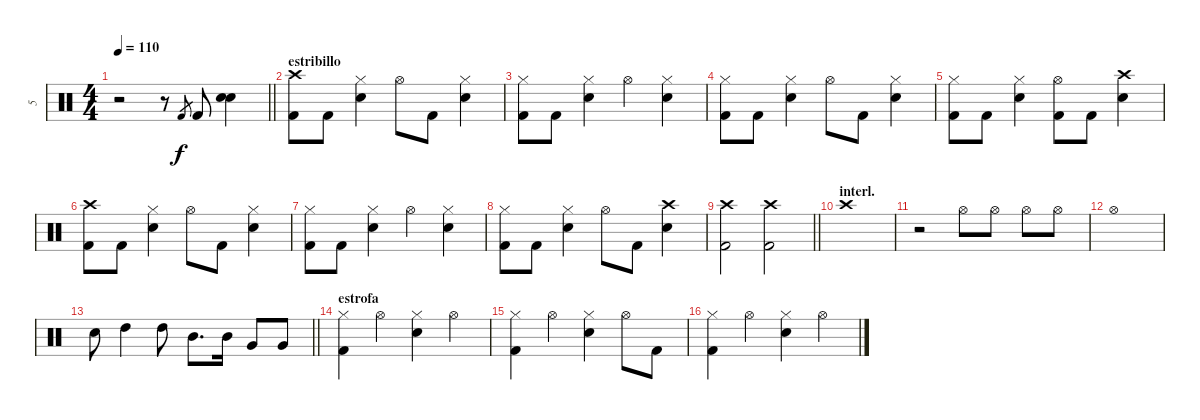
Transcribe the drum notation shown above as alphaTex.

\track ("5" "5") {instrument percussion}
\staff {score}
\articulation defaults
\ts (4 4)
\tempo 110
\clef neutral
\barLineRight lightlight
\ks c
r.2{dy f} r.8 "Kick (hit) 2".8{gr} "Kick (hit) 2".8 ("Electric Snare (hit)" "Electric Snare (hit)").4 |
\section ("" "estribillo")
("Crash high (hit)" "Kick (hit) 2").8 "Kick (hit) 2".8 ("Hi-Hat (closed)" "Electric Snare (hit)").4 "Hi-Hat (open)".8 "Kick (hit) 2".8 ("Hi-Hat (closed)" "Electric Snare (hit)").4 |
("Hi-Hat (closed)" "Kick (hit) 2").8 "Kick (hit) 2".8 ("Hi-Hat (closed)" "Electric Snare (hit)").4 "Hi-Hat (open)".4 ("Hi-Hat (closed)" "Electric Snare (hit)").4 |
("Hi-Hat (closed)" "Kick (hit) 2").8 "Kick (hit) 2".8 ("Hi-Hat (closed)" "Electric Snare (hit)").4 "Hi-Hat (open)".8 "Kick (hit) 2".8 ("Hi-Hat (closed)" "Electric Snare (hit)").4 |
("Hi-Hat (closed)" "Kick (hit) 2").8 "Kick (hit) 2".8 ("Hi-Hat (closed)" "Electric Snare (hit)").4 ("Hi-Hat (open)" "Kick (hit) 2").8 "Kick (hit) 2".8 ("Crash high (hit)" "Electric Snare (hit)").4 |
("Crash high (hit)" "Kick (hit) 2").8 "Kick (hit) 2".8 ("Hi-Hat (closed)" "Electric Snare (hit)").4 "Hi-Hat (open)".8 "Kick (hit) 2".8 ("Hi-Hat (closed)" "Electric Snare (hit)").4 |
("Hi-Hat (closed)" "Kick (hit) 2").8 "Kick (hit) 2".8 ("Hi-Hat (closed)" "Electric Snare (hit)").4 "Hi-Hat (open)".4 ("Hi-Hat (closed)" "Electric Snare (hit)").4 |
("Hi-Hat (closed)" "Kick (hit) 2").8 "Kick (hit) 2".8 ("Hi-Hat (closed)" "Electric Snare (hit)").4 "Hi-Hat (open)".8 "Kick (hit) 2".8 ("Crash high (hit)" "Electric Snare (hit)").4 |
\barLineRight lightlight
("Crash high (hit)" "Kick (hit) 2").2 ("Crash high (hit)" "Kick (hit) 2").2 |
\section ("" "interl.")
"Crash high (hit)".1 |
r.2 "Hi-Hat (open)".8 "Hi-Hat (open)".8 "Hi-Hat (open)".8 "Hi-Hat (open)".8 |
"Hi-Hat (open)".1 |
\barLineRight lightlight "Electric Snare (hit)".8 "High Tom (hit)".4 "High Tom (hit)".8 "Mid Tom (hit)".8{d} "Mid Tom (hit)".16 "Very Low Tom (hit)".8 "Very Low Tom (hit)".8
|
\section ("" "estrofa")
("Hi-Hat (closed)" "Kick (hit) 2").4 "Hi-Hat (open)".4 ("Hi-Hat (closed)" "Electric Snare (hit)").4 "Hi-Hat (open)".4 |
("Hi-Hat (closed)" "Kick (hit) 2").4 "Hi-Hat (open)".4 ("Hi-Hat (closed)" "Electric Snare (hit)").4 "Hi-Hat (open)".8 "Kick (hit) 2".8 |
("Hi-Hat (closed)" "Kick (hit) 2").4 "Hi-Hat (open)".4 ("Hi-Hat (closed)" "Electric Snare (hit)").4 "Hi-Hat (open)".4
